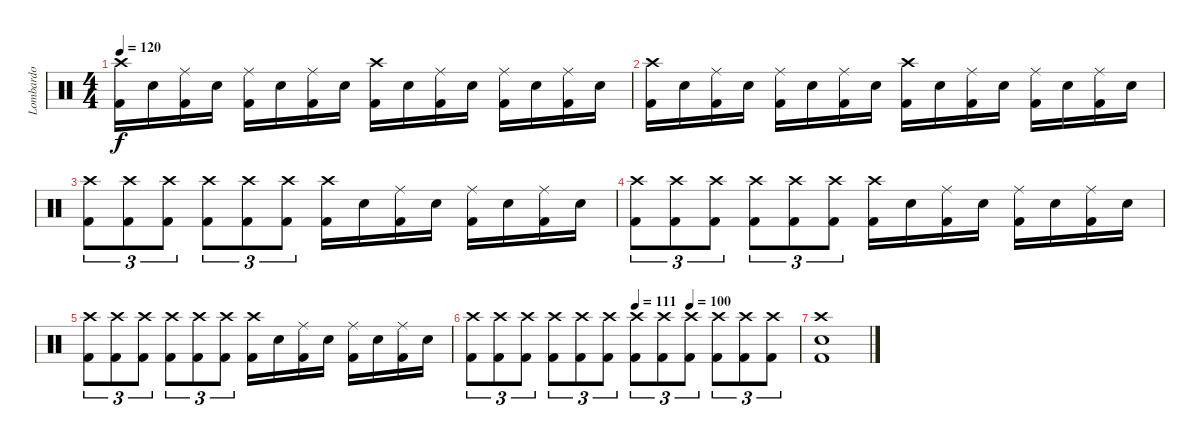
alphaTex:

\track ("Lombardo" "Lombardo") {instrument percussion}
\staff {score}
\articulation defaults
\ts (4 4)
\tempo 120
\clef neutral
\ks c
("Crash high (hit)" "Kick (hit) 2").16{dy f} "Electric Snare (hit)".16 ("Ride (middle)" "Kick (hit) 2").16 "Electric Snare (hit)".16 ("Ride (middle)" "Kick (hit) 2").16 "Electric Snare (hit)".16 ("Ride (middle)" "Kick (hit) 2").16 "Electric Snare (hit)".16 ("Crash high (hit)" "Kick (hit) 2").16 "Electric Snare (hit)".16 ("Ride (middle)" "Kick (hit) 2").16 "Electric Snare (hit)".16 ("Ride (middle)" "Kick (hit) 2").16 "Electric Snare (hit)".16 ("Ride (middle)" "Kick (hit) 2").16 "Electric Snare (hit)".16 |
("Crash high (hit)" "Kick (hit) 2").16 "Electric Snare (hit)".16 ("Ride (middle)" "Kick (hit) 2").16 "Electric Snare (hit)".16 ("Ride (middle)" "Kick (hit) 2").16 "Electric Snare (hit)".16 ("Ride (middle)" "Kick (hit) 2").16 "Electric Snare (hit)".16 ("Crash high (hit)" "Kick (hit) 2").16 "Electric Snare (hit)".16 ("Ride (middle)" "Kick (hit) 2").16 "Electric Snare (hit)".16 ("Ride (middle)" "Kick (hit) 2").16 "Electric Snare (hit)".16 ("Ride (middle)" "Kick (hit) 2").16 "Electric Snare (hit)".16 |
("Crash high (hit)" "Kick (hit) 2").8{tu (3 2)} ("Crash high (hit)" "Kick (hit) 2").8{tu (3 2)} ("Crash high (hit)" "Kick (hit) 2").8{tu (3 2)} ("Crash high (hit)" "Kick (hit) 2").8{tu (3 2)} ("Crash high (hit)" "Kick (hit) 2").8{tu (3 2)} ("Crash high (hit)" "Kick (hit) 2").8{tu (3 2)} ("Crash high (hit)" "Kick (hit) 2").16 "Electric Snare (hit)".16 ("Ride (middle)" "Kick (hit) 2").16 "Electric Snare (hit)".16 ("Ride (middle)" "Kick (hit) 2").16 "Electric Snare (hit)".16 ("Ride (middle)" "Kick (hit) 2").16 "Electric Snare (hit)".16 |
("Crash high (hit)" "Kick (hit) 2").8{tu (3 2)} ("Crash high (hit)" "Kick (hit) 2").8{tu (3 2)} ("Crash high (hit)" "Kick (hit) 2").8{tu (3 2)} ("Crash high (hit)" "Kick (hit) 2").8{tu (3 2)} ("Crash high (hit)" "Kick (hit) 2").8{tu (3 2)} ("Crash high (hit)" "Kick (hit) 2").8{tu (3 2)} ("Crash high (hit)" "Kick (hit) 2").16 "Electric Snare (hit)".16 ("Ride (middle)" "Kick (hit) 2").16 "Electric Snare (hit)".16 ("Ride (middle)" "Kick (hit) 2").16 "Electric Snare (hit)".16 ("Ride (middle)" "Kick (hit) 2").16 "Electric Snare (hit)".16 |
("Crash high (hit)" "Kick (hit) 2").8{tu (3 2)} ("Crash high (hit)" "Kick (hit) 2").8{tu (3 2)} ("Crash high (hit)" "Kick (hit) 2").8{tu (3 2)} ("Crash high (hit)" "Kick (hit) 2").8{tu (3 2)} ("Crash high (hit)" "Kick (hit) 2").8{tu (3 2)} ("Crash high (hit)" "Kick (hit) 2").8{tu (3 2)} ("Crash high (hit)" "Kick (hit) 2").16 "Electric Snare (hit)".16 ("Ride (middle)" "Kick (hit) 2").16 "Electric Snare (hit)".16 ("Ride (middle)" "Kick (hit) 2").16 "Electric Snare (hit)".16 ("Ride (middle)" "Kick (hit) 2").16 "Electric Snare (hit)".16 |
\tempo (111 0.5)
\tempo (100 0.6666666666666666)
("Crash high (hit)" "Kick (hit) 2").8{tu (3 2)} ("Crash high (hit)" "Kick (hit) 2").8{tu (3 2)} ("Crash high (hit)" "Kick (hit) 2").8{tu (3 2)} ("Crash high (hit)" "Kick (hit) 2").8{tu (3 2)} ("Crash high (hit)" "Kick (hit) 2").8{tu (3 2)} ("Crash high (hit)" "Kick (hit) 2").8{tu (3 2)} ("Crash high (hit)" "Kick (hit) 2").8{tu (3 2)} ("Crash high (hit)" "Kick (hit) 2").8{tu (3 2)} ("Crash high (hit)" "Kick (hit) 2").8{tu (3 2)} ("Crash high (hit)" "Kick (hit) 2").8{tu (3 2)} ("Crash high (hit)" "Kick (hit) 2").8{tu (3 2)} ("Crash high (hit)" "Kick (hit) 2").8{tu (3 2)} |
("Crash high (hit)" "Electric Snare (hit)" "Kick (hit) 2").1
